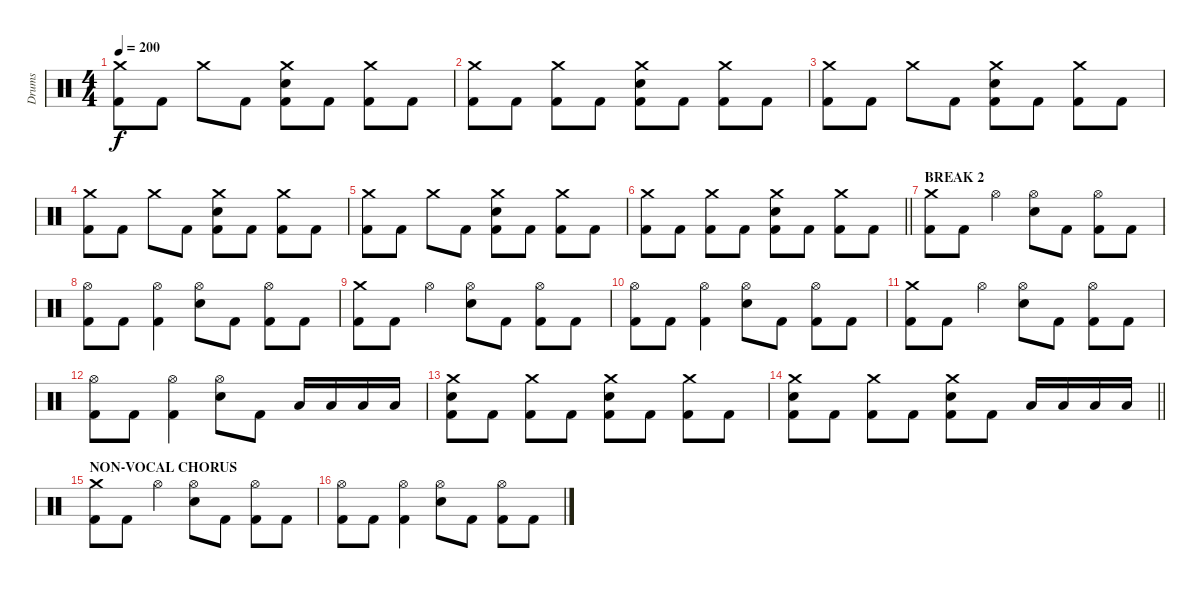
\track ("Drums" "Drums") {instrument percussion}
\staff {score}
\articulation defaults
\ts (4 4)
\tempo 200
\clef neutral
\ks c
("Crash medium (hit)" "Kick (hit) 2").8{dy f} "Kick (hit) 2".8 "Crash medium (hit)".8 "Kick (hit) 2".8 ("Crash medium (hit)" "Electric Snare (hit)" "Kick (hit) 2").8 "Kick (hit) 2".8 ("Crash medium (hit)" "Kick (hit) 2").8 "Kick (hit) 2".8 |
("Crash medium (hit)" "Kick (hit) 2").8 "Kick (hit) 2".8 ("Crash medium (hit)" "Kick (hit) 2").8 "Kick (hit) 2".8 ("Crash medium (hit)" "Electric Snare (hit)" "Kick (hit) 2").8 "Kick (hit) 2".8 ("Crash medium (hit)" "Kick (hit) 2").8 "Kick (hit) 2".8 |
("Crash medium (hit)" "Kick (hit) 2").8 "Kick (hit) 2".8 "Crash medium (hit)".8 "Kick (hit) 2".8 ("Crash medium (hit)" "Electric Snare (hit)" "Kick (hit) 2").8 "Kick (hit) 2".8 ("Crash medium (hit)" "Kick (hit) 2").8 "Kick (hit) 2".8 |
("Crash medium (hit)" "Kick (hit) 2").8 "Kick (hit) 2".8 "Crash medium (hit)".8 "Kick (hit) 2".8 ("Crash medium (hit)" "Electric Snare (hit)" "Kick (hit) 2").8 "Kick (hit) 2".8 ("Crash medium (hit)" "Kick (hit) 2").8 "Kick (hit) 2".8 |
("Crash medium (hit)" "Kick (hit) 2").8 "Kick (hit) 2".8 "Crash medium (hit)".8 "Kick (hit) 2".8 ("Crash medium (hit)" "Electric Snare (hit)" "Kick (hit) 2").8 "Kick (hit) 2".8 ("Crash medium (hit)" "Kick (hit) 2").8 "Kick (hit) 2".8 |
\barLineRight lightlight
("Crash medium (hit)" "Kick (hit) 2").8 "Kick (hit) 2".8 ("Crash medium (hit)" "Kick (hit) 2").8 "Kick (hit) 2".8 ("Crash medium (hit)" "Electric Snare (hit)" "Kick (hit) 2").8 "Kick (hit) 2".8 ("Crash medium (hit)" "Kick (hit) 2").8 "Kick (hit) 2".8 |
\section ("" "BREAK 2")
("Crash medium (hit)" "Kick (hit) 2").8 "Kick (hit) 2".8 "Hi-Hat (open)".4 ("Hi-Hat (open)" "Electric Snare (hit)").8 "Kick (hit) 2".8 ("Hi-Hat (open)" "Kick (hit) 2").8 "Kick (hit) 2".8 |
("Hi-Hat (open)" "Kick (hit) 2").8 "Kick (hit) 2".8 ("Hi-Hat (open)" "Kick (hit) 2").4 ("Hi-Hat (open)" "Electric Snare (hit)").8 "Kick (hit) 2".8 ("Hi-Hat (open)" "Kick (hit) 2").8 "Kick (hit) 2".8 |
("Crash medium (hit)" "Kick (hit) 2").8 "Kick (hit) 2".8 "Hi-Hat (open)".4 ("Hi-Hat (open)" "Electric Snare (hit)").8 "Kick (hit) 2".8 ("Hi-Hat (open)" "Kick (hit) 2").8 "Kick (hit) 2".8 |
("Hi-Hat (open)" "Kick (hit) 2").8 "Kick (hit) 2".8 ("Hi-Hat (open)" "Kick (hit) 2").4 ("Hi-Hat (open)" "Electric Snare (hit)").8 "Kick (hit) 2".8 ("Hi-Hat (open)" "Kick (hit) 2").8 "Kick (hit) 2".8 |
("Crash medium (hit)" "Kick (hit) 2").8 "Kick (hit) 2".8 "Hi-Hat (open)".4 ("Hi-Hat (open)" "Electric Snare (hit)").8 "Kick (hit) 2".8 ("Hi-Hat (open)" "Kick (hit) 2").8 "Kick (hit) 2".8 |
("Hi-Hat (open)" "Kick (hit) 2").8 "Kick (hit) 2".8 ("Hi-Hat (open)" "Kick (hit) 2").4 ("Hi-Hat (open)" "Electric Snare (hit)").8 "Kick (hit) 2".8 "Low Tom (hit)".16 "Low Tom (hit)".16 "Low Floor Tom (hit)".16 "Low Floor Tom (hit)".16 |
("Crash medium (hit)" "Electric Snare (hit)" "Kick (hit) 2").8 "Kick (hit) 2".8 ("Crash medium (hit)" "Kick (hit) 2").8 "Kick (hit) 2".8 ("Crash medium (hit)" "Electric Snare (hit)" "Kick (hit) 2").8 "Kick (hit) 2".8 ("Crash medium (hit)" "Kick (hit) 2").8 "Kick (hit) 2".8 |
\barLineRight lightlight
("Crash medium (hit)" "Electric Snare (hit)" "Kick (hit) 2").8 "Kick (hit) 2".8 ("Crash medium (hit)" "Kick (hit) 2").8 "Kick (hit) 2".8 ("Crash medium (hit)" "Electric Snare (hit)" "Kick (hit) 2").8 "Kick (hit) 2".8 "Low Tom (hit)".16 "Low Tom (hit)".16 "Low Floor Tom (hit)".16 "Low Floor Tom (hit)".16 |
\section ("" "NON-VOCAL CHORUS")
("Crash medium (hit)" "Kick (hit) 2").8 "Kick (hit) 2".8 "Hi-Hat (open)".4 ("Hi-Hat (open)" "Electric Snare (hit)").8 "Kick (hit) 2".8 ("Hi-Hat (open)" "Kick (hit) 2").8 "Kick (hit) 2".8 |
("Hi-Hat (open)" "Kick (hit) 2").8 "Kick (hit) 2".8 ("Hi-Hat (open)" "Kick (hit) 2").4 ("Hi-Hat (open)" "Electric Snare (hit)").8 "Kick (hit) 2".8 ("Hi-Hat (open)" "Kick (hit) 2").8 "Kick (hit) 2".8
